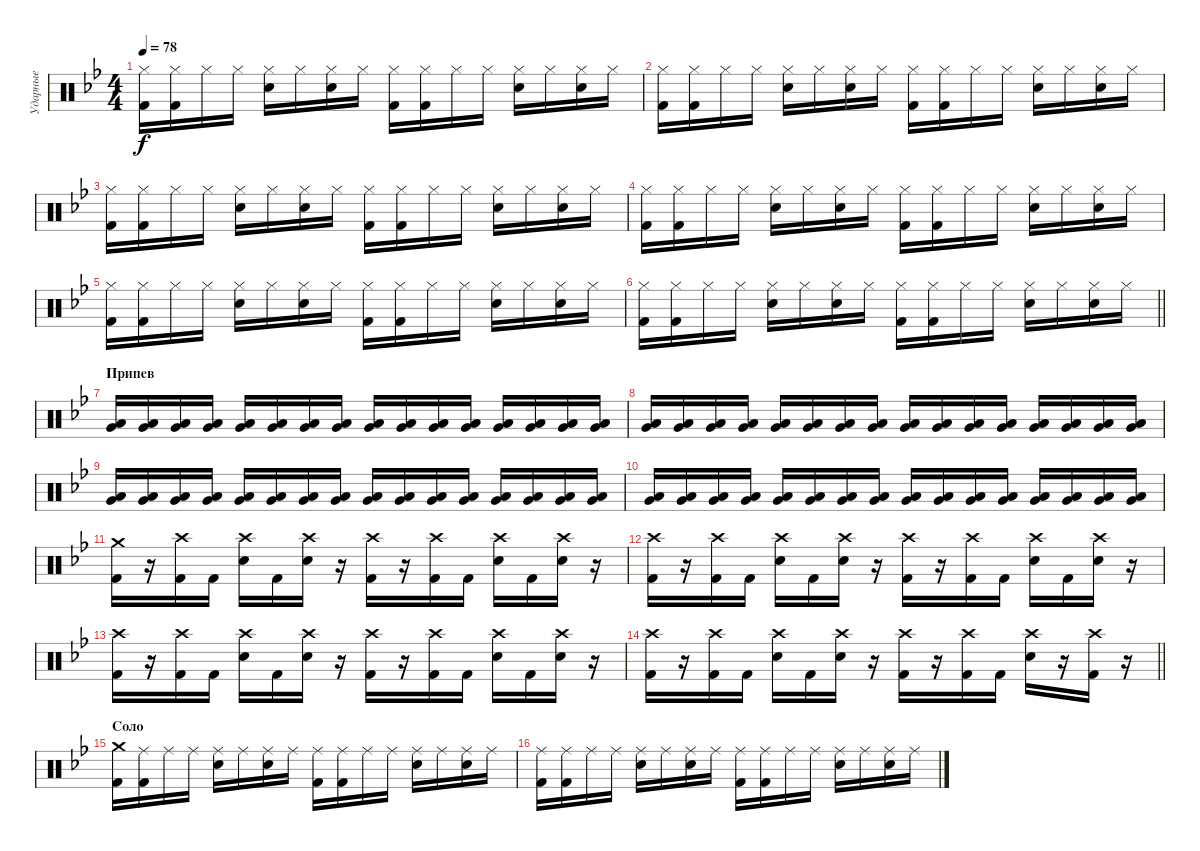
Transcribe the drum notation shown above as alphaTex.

\track ("Ударные" "Ударные") {instrument percussion}
\staff {score}
\articulation defaults
\ts (4 4)
\tempo 78
\clef neutral
\ks gminor
("Hi-Hat (closed)" "Kick (hit) 2").16{dy f} ("Hi-Hat (closed)" "Kick (hit) 2").16 "Hi-Hat (closed)".16 "Hi-Hat (closed)".16 ("Hi-Hat (closed)" "Electric Snare (hit)").16 "Hi-Hat (closed)".16 ("Hi-Hat (closed)" "Electric Snare (hit)").16 "Hi-Hat (closed)".16 ("Hi-Hat (closed)" "Kick (hit) 2").16 ("Hi-Hat (closed)" "Kick (hit) 2").16 "Hi-Hat (closed)".16 "Hi-Hat (closed)".16 ("Hi-Hat (closed)" "Electric Snare (hit)").16 "Hi-Hat (closed)".16 ("Hi-Hat (closed)" "Electric Snare (hit)").16 "Hi-Hat (closed)".16 |
("Hi-Hat (closed)" "Kick (hit) 2").16 ("Hi-Hat (closed)" "Kick (hit) 2").16 "Hi-Hat (closed)".16 "Hi-Hat (closed)".16 ("Hi-Hat (closed)" "Electric Snare (hit)").16 "Hi-Hat (closed)".16 ("Hi-Hat (closed)" "Electric Snare (hit)").16 "Hi-Hat (closed)".16 ("Hi-Hat (closed)" "Kick (hit) 2").16 ("Hi-Hat (closed)" "Kick (hit) 2").16 "Hi-Hat (closed)".16 "Hi-Hat (closed)".16 ("Hi-Hat (closed)" "Electric Snare (hit)").16 "Hi-Hat (closed)".16 ("Hi-Hat (closed)" "Electric Snare (hit)").16 "Hi-Hat (closed)".16 |
("Hi-Hat (closed)" "Kick (hit) 2").16 ("Hi-Hat (closed)" "Kick (hit) 2").16 "Hi-Hat (closed)".16 "Hi-Hat (closed)".16 ("Hi-Hat (closed)" "Electric Snare (hit)").16 "Hi-Hat (closed)".16 ("Hi-Hat (closed)" "Electric Snare (hit)").16 "Hi-Hat (closed)".16 ("Hi-Hat (closed)" "Kick (hit) 2").16 ("Hi-Hat (closed)" "Kick (hit) 2").16 "Hi-Hat (closed)".16 "Hi-Hat (closed)".16 ("Hi-Hat (closed)" "Electric Snare (hit)").16 "Hi-Hat (closed)".16 ("Hi-Hat (closed)" "Electric Snare (hit)").16 "Hi-Hat (closed)".16 |
("Hi-Hat (closed)" "Kick (hit) 2").16 ("Hi-Hat (closed)" "Kick (hit) 2").16 "Hi-Hat (closed)".16 "Hi-Hat (closed)".16 ("Hi-Hat (closed)" "Electric Snare (hit)").16 "Hi-Hat (closed)".16 ("Hi-Hat (closed)" "Electric Snare (hit)").16 "Hi-Hat (closed)".16 ("Hi-Hat (closed)" "Kick (hit) 2").16 ("Hi-Hat (closed)" "Kick (hit) 2").16 "Hi-Hat (closed)".16 "Hi-Hat (closed)".16 ("Hi-Hat (closed)" "Electric Snare (hit)").16 "Hi-Hat (closed)".16 ("Hi-Hat (closed)" "Electric Snare (hit)").16 "Hi-Hat (closed)".16 |
("Hi-Hat (closed)" "Kick (hit) 2").16 ("Hi-Hat (closed)" "Kick (hit) 2").16 "Hi-Hat (closed)".16 "Hi-Hat (closed)".16 ("Hi-Hat (closed)" "Electric Snare (hit)").16 "Hi-Hat (closed)".16 ("Hi-Hat (closed)" "Electric Snare (hit)").16 "Hi-Hat (closed)".16 ("Hi-Hat (closed)" "Kick (hit) 2").16 ("Hi-Hat (closed)" "Kick (hit) 2").16 "Hi-Hat (closed)".16 "Hi-Hat (closed)".16 ("Hi-Hat (closed)" "Electric Snare (hit)").16 "Hi-Hat (closed)".16 ("Hi-Hat (closed)" "Electric Snare (hit)").16 "Hi-Hat (closed)".16 |
\barLineRight lightlight
("Hi-Hat (closed)" "Kick (hit) 2").16 ("Hi-Hat (closed)" "Kick (hit) 2").16 "Hi-Hat (closed)".16 "Hi-Hat (closed)".16 ("Hi-Hat (closed)" "Electric Snare (hit)").16 "Hi-Hat (closed)".16 ("Hi-Hat (closed)" "Electric Snare (hit)").16 "Hi-Hat (closed)".16 ("Hi-Hat (closed)" "Kick (hit) 2").16 ("Hi-Hat (closed)" "Kick (hit) 2").16 "Hi-Hat (closed)".16 "Hi-Hat (closed)".16 ("Hi-Hat (closed)" "Electric Snare (hit)").16 "Hi-Hat (closed)".16 ("Hi-Hat (closed)" "Electric Snare (hit)").16 "Hi-Hat (closed)".16 |
\section ("" "Припев")
("Low Floor Tom (hit)" "Very Low Tom (hit)").16{volume 7} ("Low Floor Tom (hit)" "Very Low Tom (hit)").16{volume 13} ("Low Floor Tom (hit)" "Very Low Tom (hit)").16 ("Low Floor Tom (hit)" "Very Low Tom (hit)").16 ("Low Floor Tom (hit)" "Very Low Tom (hit)").16 ("Low Floor Tom (hit)" "Very Low Tom (hit)").16 ("Low Floor Tom (hit)" "Very Low Tom (hit)").16 ("Low Floor Tom (hit)" "Very Low Tom (hit)").16 ("Low Floor Tom (hit)" "Very Low Tom (hit)").16 ("Low Floor Tom (hit)" "Very Low Tom (hit)").16 ("Low Floor Tom (hit)" "Very Low Tom (hit)").16 ("Low Floor Tom (hit)" "Very Low Tom (hit)").16 ("Low Floor Tom (hit)" "Very Low Tom (hit)").16 ("Low Floor Tom (hit)" "Very Low Tom (hit)").16 ("Low Floor Tom (hit)" "Very Low Tom (hit)").16 ("Low Floor Tom (hit)" "Very Low Tom (hit)").16 |
("Low Floor Tom (hit)" "Very Low Tom (hit)").16 ("Low Floor Tom (hit)" "Very Low Tom (hit)").16 ("Low Floor Tom (hit)" "Very Low Tom (hit)").16 ("Low Floor Tom (hit)" "Very Low Tom (hit)").16 ("Low Floor Tom (hit)" "Very Low Tom (hit)").16 ("Low Floor Tom (hit)" "Very Low Tom (hit)").16 ("Low Floor Tom (hit)" "Very Low Tom (hit)").16 ("Low Floor Tom (hit)" "Very Low Tom (hit)").16 ("Low Floor Tom (hit)" "Very Low Tom (hit)").16 ("Low Floor Tom (hit)" "Very Low Tom (hit)").16 ("Low Floor Tom (hit)" "Very Low Tom (hit)").16 ("Low Floor Tom (hit)" "Very Low Tom (hit)").16 ("Low Floor Tom (hit)" "Very Low Tom (hit)").16 ("Low Floor Tom (hit)" "Very Low Tom (hit)").16 ("Low Floor Tom (hit)" "Very Low Tom (hit)").16 ("Low Floor Tom (hit)" "Very Low Tom (hit)").16 |
("Low Floor Tom (hit)" "Very Low Tom (hit)").16 ("Low Floor Tom (hit)" "Very Low Tom (hit)").16 ("Low Floor Tom (hit)" "Very Low Tom (hit)").16 ("Low Floor Tom (hit)" "Very Low Tom (hit)").16 ("Low Floor Tom (hit)" "Very Low Tom (hit)").16 ("Low Floor Tom (hit)" "Very Low Tom (hit)").16 ("Low Floor Tom (hit)" "Very Low Tom (hit)").16 ("Low Floor Tom (hit)" "Very Low Tom (hit)").16 ("Low Floor Tom (hit)" "Very Low Tom (hit)").16 ("Low Floor Tom (hit)" "Very Low Tom (hit)").16 ("Low Floor Tom (hit)" "Very Low Tom (hit)").16 ("Low Floor Tom (hit)" "Very Low Tom (hit)").16 ("Low Floor Tom (hit)" "Very Low Tom (hit)").16 ("Low Floor Tom (hit)" "Very Low Tom (hit)").16 ("Low Floor Tom (hit)" "Very Low Tom (hit)").16 ("Low Floor Tom (hit)" "Very Low Tom (hit)").16 |
("Low Floor Tom (hit)" "Very Low Tom (hit)").16 ("Low Floor Tom (hit)" "Very Low Tom (hit)").16 ("Low Floor Tom (hit)" "Very Low Tom (hit)").16 ("Low Floor Tom (hit)" "Very Low Tom (hit)").16 ("Low Floor Tom (hit)" "Very Low Tom (hit)").16 ("Low Floor Tom (hit)" "Very Low Tom (hit)").16 ("Low Floor Tom (hit)" "Very Low Tom (hit)").16 ("Low Floor Tom (hit)" "Very Low Tom (hit)").16 ("Low Floor Tom (hit)" "Very Low Tom (hit)").16 ("Low Floor Tom (hit)" "Very Low Tom (hit)").16 ("Low Floor Tom (hit)" "Very Low Tom (hit)").16 ("Low Floor Tom (hit)" "Very Low Tom (hit)").16 ("Low Floor Tom (hit)" "Very Low Tom (hit)").16 ("Low Floor Tom (hit)" "Very Low Tom (hit)").16 ("Low Floor Tom (hit)" "Very Low Tom (hit)").16 ("Low Floor Tom (hit)" "Very Low Tom (hit)").16 |
("Crash medium (hit)" "Kick (hit) 2").16 r.16 ("Crash high (hit)" "Kick (hit) 2").16 "Kick (hit) 2".16 ("Crash high (hit)" "Electric Snare (hit)").16 "Kick (hit) 2".16 ("Crash high (hit)" "Electric Snare (hit)").16 r.16 ("Crash high (hit)" "Kick (hit) 2").16 r.16 ("Crash high (hit)" "Kick (hit) 2").16 "Kick (hit) 2".16 ("Crash high (hit)" "Electric Snare (hit)").16 "Kick (hit) 2".16 ("Crash high (hit)" "Electric Snare (hit)").16 r.16 |
("Crash high (hit)" "Kick (hit) 2").16 r.16 ("Crash high (hit)" "Kick (hit) 2").16 "Kick (hit) 2".16 ("Crash high (hit)" "Electric Snare (hit)").16 "Kick (hit) 2".16 ("Crash high (hit)" "Electric Snare (hit)").16 r.16 ("Crash high (hit)" "Kick (hit) 2").16 r.16 ("Crash high (hit)" "Kick (hit) 2").16 "Kick (hit) 2".16 ("Crash high (hit)" "Electric Snare (hit)").16 "Kick (hit) 2".16 ("Crash high (hit)" "Electric Snare (hit)").16 r.16 |
("Crash high (hit)" "Kick (hit) 2").16 r.16 ("Crash high (hit)" "Kick (hit) 2").16 "Kick (hit) 2".16 ("Crash high (hit)" "Electric Snare (hit)").16 "Kick (hit) 2".16 ("Crash high (hit)" "Electric Snare (hit)").16 r.16 ("Crash high (hit)" "Kick (hit) 2").16 r.16 ("Crash high (hit)" "Kick (hit) 2").16 "Kick (hit) 2".16 ("Crash high (hit)" "Electric Snare (hit)").16 "Kick (hit) 2".16 ("Crash high (hit)" "Electric Snare (hit)").16 r.16 |
\barLineRight lightlight
("Crash high (hit)" "Kick (hit) 2").16 r.16 ("Crash high (hit)" "Kick (hit) 2").16 "Kick (hit) 2".16 ("Crash high (hit)" "Electric Snare (hit)").16 "Kick (hit) 2".16 ("Crash high (hit)" "Electric Snare (hit)").16 r.16 ("Crash high (hit)" "Kick (hit) 2").16 r.16 ("Crash high (hit)" "Kick (hit) 2").16 "Kick (hit) 2".16 ("Crash high (hit)" "Electric Snare (hit)").16 r.16 ("Crash high (hit)" "Kick (hit) 2").16 r.16 |
\section ("" "Соло")
("Crash medium (hit)" "Kick (hit) 2").16 ("Ride (middle)" "Kick (hit) 2").16 "Ride (middle)".16 "Ride (middle)".16 ("Ride (middle)" "Electric Snare (hit)").16 "Ride (middle)".16 ("Ride (middle)" "Electric Snare (hit)").16 "Ride (middle)".16 ("Ride (middle)" "Kick (hit) 2").16 ("Ride (middle)" "Kick (hit) 2").16 "Ride (middle)".16 "Ride (middle)".16 ("Ride (middle)" "Electric Snare (hit)").16 "Ride (middle)".16 ("Ride (middle)" "Electric Snare (hit)").16 "Ride (middle)".16 |
("Ride (middle)" "Kick (hit) 2").16 ("Ride (middle)" "Kick (hit) 2").16 "Ride (middle)".16 "Ride (middle)".16 ("Ride (middle)" "Electric Snare (hit)").16 "Ride (middle)".16 ("Ride (middle)" "Electric Snare (hit)").16 "Ride (middle)".16 ("Ride (middle)" "Kick (hit) 2").16 ("Ride (middle)" "Kick (hit) 2").16 "Ride (middle)".16 "Ride (middle)".16 ("Ride (middle)" "Electric Snare (hit)").16 "Ride (middle)".16 ("Ride (middle)" "Electric Snare (hit)").16 "Ride (middle)".16
